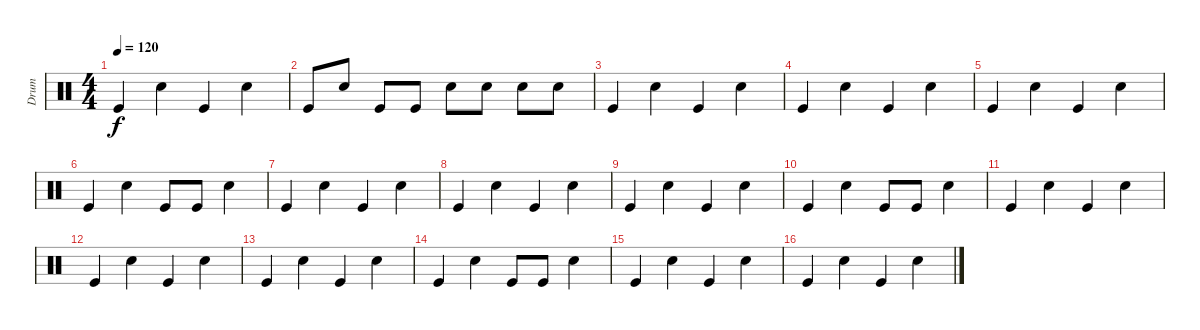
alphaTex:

\track ("Drum" "Drum") {instrument percussion}
\staff {score}
\articulation defaults
\ts (4 4)
\tempo 120
\clef neutral
\ks c "Kick (hit)".4{dy f} "Snare (hit) 2".4 "Kick (hit)".4 "Snare (hit) 2".4
|
"Kick (hit)".8 "Snare (hit) 2".8 "Kick (hit)".8 "Kick (hit)".8 "Snare (hit) 2".8 "Snare (hit) 2".8 "Snare (hit) 2".8 "Snare (hit) 2".8 |
"Kick (hit)".4 "Snare (hit) 2".4 "Kick (hit)".4 "Snare (hit) 2".4 |
"Kick (hit)".4 "Snare (hit) 2".4 "Kick (hit)".4 "Snare (hit) 2".4 |
"Kick (hit)".4 "Snare (hit) 2".4 "Kick (hit)".4 "Snare (hit) 2".4 |
"Kick (hit)".4 "Snare (hit) 2".4 "Kick (hit)".8 "Kick (hit)".8 "Snare (hit) 2".4 |
"Kick (hit)".4 "Snare (hit) 2".4 "Kick (hit)".4 "Snare (hit) 2".4 |
"Kick (hit)".4 "Snare (hit) 2".4 "Kick (hit)".4 "Snare (hit) 2".4 |
"Kick (hit)".4 "Snare (hit) 2".4 "Kick (hit)".4 "Snare (hit) 2".4 |
"Kick (hit)".4 "Snare (hit) 2".4 "Kick (hit)".8 "Kick (hit)".8 "Snare (hit) 2".4 |
"Kick (hit)".4 "Snare (hit) 2".4 "Kick (hit)".4 "Snare (hit) 2".4 |
"Kick (hit)".4 "Snare (hit) 2".4 "Kick (hit)".4 "Snare (hit) 2".4 |
"Kick (hit)".4 "Snare (hit) 2".4 "Kick (hit)".4 "Snare (hit) 2".4 |
"Kick (hit)".4 "Snare (hit) 2".4 "Kick (hit)".8 "Kick (hit)".8 "Snare (hit) 2".4 |
"Kick (hit)".4 "Snare (hit) 2".4 "Kick (hit)".4 "Snare (hit) 2".4 |
"Kick (hit)".4 "Snare (hit) 2".4 "Kick (hit)".4 "Snare (hit) 2".4
